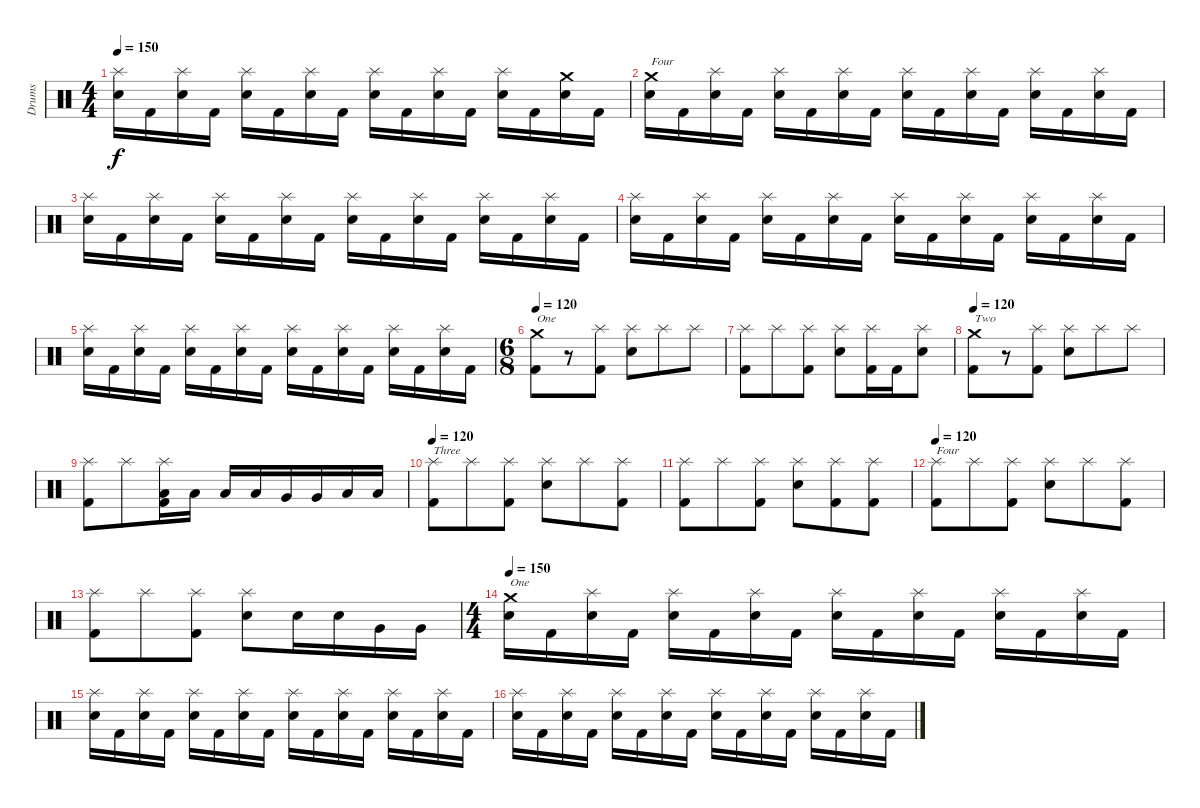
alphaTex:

\track ("Drums" "Drums") {instrument percussion}
\staff {score}
\articulation defaults
\ts (4 4)
\tempo 150
\clef neutral
\ks c
("Splash (hit)" "Snare (hit) 2").16{dy f} "Kick (hit) 2".16 ("Splash (hit)" "Snare (hit) 2").16 "Kick (hit) 2".16 ("Splash (hit)" "Snare (hit) 2").16 "Kick (hit) 2".16 ("Splash (hit)" "Snare (hit) 2").16 "Kick (hit) 2".16 ("Splash (hit)" "Snare (hit) 2").16 "Kick (hit) 2".16 ("Splash (hit)" "Snare (hit) 2").16 "Kick (hit) 2".16 ("Splash (hit)" "Snare (hit) 2").16 "Kick (hit) 2".16 ("Crash medium (hit)" "Snare (hit) 2").16 "Kick (hit) 2".16 |
("Crash medium (hit)" "Snare (hit) 2").16{txt "Four"} "Kick (hit) 2".16 ("Splash (hit)" "Snare (hit) 2").16 "Kick (hit) 2".16 ("Splash (hit)" "Snare (hit) 2").16 "Kick (hit) 2".16 ("Splash (hit)" "Snare (hit) 2").16 "Kick (hit) 2".16 ("Splash (hit)" "Snare (hit) 2").16 "Kick (hit) 2".16 ("Splash (hit)" "Snare (hit) 2").16 "Kick (hit) 2".16 ("Splash (hit)" "Snare (hit) 2").16 "Kick (hit) 2".16 ("Splash (hit)" "Snare (hit) 2").16 "Kick (hit) 2".16 |
("Splash (hit)" "Snare (hit) 2").16 "Kick (hit) 2".16 ("Splash (hit)" "Snare (hit) 2").16 "Kick (hit) 2".16 ("Splash (hit)" "Snare (hit) 2").16 "Kick (hit) 2".16 ("Splash (hit)" "Snare (hit) 2").16 "Kick (hit) 2".16 ("Splash (hit)" "Snare (hit) 2").16 "Kick (hit) 2".16 ("Splash (hit)" "Snare (hit) 2").16 "Kick (hit) 2".16 ("Splash (hit)" "Snare (hit) 2").16 "Kick (hit) 2".16 ("Splash (hit)" "Snare (hit) 2").16 "Kick (hit) 2".16 |
("Splash (hit)" "Snare (hit) 2").16 "Kick (hit) 2".16 ("Splash (hit)" "Snare (hit) 2").16 "Kick (hit) 2".16 ("Splash (hit)" "Snare (hit) 2").16 "Kick (hit) 2".16 ("Splash (hit)" "Snare (hit) 2").16 "Kick (hit) 2".16 ("Splash (hit)" "Snare (hit) 2").16 "Kick (hit) 2".16 ("Splash (hit)" "Snare (hit) 2").16 "Kick (hit) 2".16 ("Splash (hit)" "Snare (hit) 2").16 "Kick (hit) 2".16 ("Splash (hit)" "Snare (hit) 2").16 "Kick (hit) 2".16 |
("Splash (hit)" "Snare (hit) 2").16 "Kick (hit) 2".16 ("Splash (hit)" "Snare (hit) 2").16 "Kick (hit) 2".16 ("Splash (hit)" "Snare (hit) 2").16 "Kick (hit) 2".16 ("Splash (hit)" "Snare (hit) 2").16 "Kick (hit) 2".16 ("Splash (hit)" "Snare (hit) 2").16 "Kick (hit) 2".16 ("Splash (hit)" "Snare (hit) 2").16 "Kick (hit) 2".16 ("Splash (hit)" "Snare (hit) 2").16 "Kick (hit) 2".16 ("Splash (hit)" "Snare (hit) 2").16 "Kick (hit) 2".16 |
\ts (6 8)
\tempo 120
("Crash medium (hit)" "Kick (hit) 2").8{txt "One"} r.8 ("Splash (hit)" "Kick (hit) 2").8 ("Splash (hit)" "Snare (hit) 2").8 "Splash (hit)".8 "Splash (hit)".8 |
("Splash (hit)" "Kick (hit) 2").8 "Splash (hit)".8 ("Splash (hit)" "Kick (hit) 2").8 ("Splash (hit)" "Snare (hit) 2").8 ("Splash (hit)" "Kick (hit) 2").16 "Kick (hit) 2".16 ("Splash (hit)" "Snare (hit) 2").8 |
\tempo 120
("Crash medium (hit)" "Kick (hit) 2").8{txt "Two"} r.8 ("Splash (hit)" "Kick (hit) 2").8 ("Splash (hit)" "Snare (hit) 2").8 "Splash (hit)".8 "Splash (hit)".8 |
("Splash (hit)" "Kick (hit) 2").8 "Splash (hit)".8 ("Splash (hit)" "Low Tom (hit)" "Kick (hit) 2").16 "Low Tom (hit)".16 "Low Tom (hit)".16 "Low Tom (hit)".16 "Very Low Tom (hit)".16 "Very Low Tom (hit)".16 "Low Floor Tom (hit)".16 "Low Floor Tom (hit)".16 |
\tempo 120
("Splash (hit)" "Kick (hit) 2").8{txt "Three"} "Splash (hit)".8 ("Splash (hit)" "Kick (hit) 2").8 ("Splash (hit)" "Snare (hit) 2").8 "Splash (hit)".8 ("Splash (hit)" "Kick (hit) 2").8 |
("Splash (hit)" "Kick (hit) 2").8 "Splash (hit)".8 ("Splash (hit)" "Kick (hit) 2").8 ("Splash (hit)" "Snare (hit) 2").8 ("Splash (hit)" "Kick (hit) 2").8 ("Splash (hit)" "Kick (hit) 2").8 |
\tempo 120
("Splash (hit)" "Kick (hit) 2").8{txt "Four"} "Splash (hit)".8 ("Splash (hit)" "Kick (hit) 2").8 ("Splash (hit)" "Snare (hit) 2").8 "Splash (hit)".8 ("Splash (hit)" "Kick (hit) 2").8 |
("Splash (hit)" "Kick (hit) 2").8 "Splash (hit)".8 ("Splash (hit)" "Kick (hit) 2").8 ("Splash (hit)" "Snare (hit) 2").8 "Snare (hit) 2".16 "Snare (hit) 2".16 "Very Low Tom (hit)".16 "Very Low Tom (hit)".16 |
\ts (4 4)
\tempo 150
("Crash medium (hit)" "Snare (hit) 2").16{txt "One"} "Kick (hit) 2".16 ("Splash (hit)" "Snare (hit) 2").16 "Kick (hit) 2".16 ("Splash (hit)" "Snare (hit) 2").16 "Kick (hit) 2".16 ("Splash (hit)" "Snare (hit) 2").16 "Kick (hit) 2".16 ("Splash (hit)" "Snare (hit) 2").16 "Kick (hit) 2".16 ("Splash (hit)" "Snare (hit) 2").16 "Kick (hit) 2".16 ("Splash (hit)" "Snare (hit) 2").16 "Kick (hit) 2".16 ("Splash (hit)" "Snare (hit) 2").16 "Kick (hit) 2".16 |
("Splash (hit)" "Snare (hit) 2").16 "Kick (hit) 2".16 ("Splash (hit)" "Snare (hit) 2").16 "Kick (hit) 2".16 ("Splash (hit)" "Snare (hit) 2").16 "Kick (hit) 2".16 ("Splash (hit)" "Snare (hit) 2").16 "Kick (hit) 2".16 ("Splash (hit)" "Snare (hit) 2").16 "Kick (hit) 2".16 ("Splash (hit)" "Snare (hit) 2").16 "Kick (hit) 2".16 ("Splash (hit)" "Snare (hit) 2").16 "Kick (hit) 2".16 ("Splash (hit)" "Snare (hit) 2").16 "Kick (hit) 2".16 |
("Splash (hit)" "Snare (hit) 2").16 "Kick (hit) 2".16 ("Splash (hit)" "Snare (hit) 2").16 "Kick (hit) 2".16 ("Splash (hit)" "Snare (hit) 2").16 "Kick (hit) 2".16 ("Splash (hit)" "Snare (hit) 2").16 "Kick (hit) 2".16 ("Splash (hit)" "Snare (hit) 2").16 "Kick (hit) 2".16 ("Splash (hit)" "Snare (hit) 2").16 "Kick (hit) 2".16 ("Splash (hit)" "Snare (hit) 2").16 "Kick (hit) 2".16 ("Splash (hit)" "Snare (hit) 2").16 "Kick (hit) 2".16
